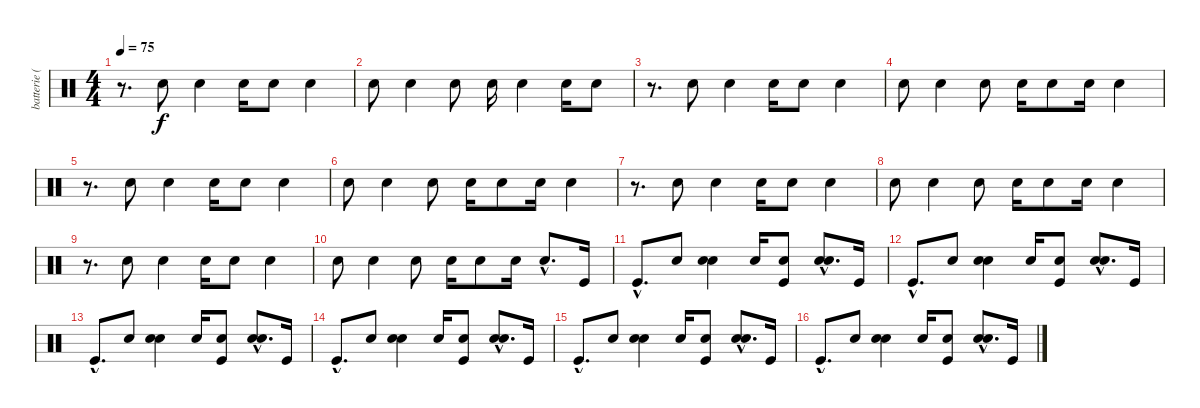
\track ("batterie ( fabien )" "batterie (") {instrument percussion}
\staff {score}
\articulation defaults
\ts (4 4)
\tempo 75
\clef neutral
\ks c
r.8{d dy f} "Hand Clap (hit)".8 "Hand Clap (hit)".4 "Hand Clap (hit)".16 "Hand Clap (hit)".8 "Hand Clap (hit)".4 |
"Hand Clap (hit)".8 "Hand Clap (hit)".4 "Hand Clap (hit)".8 "Hand Clap (hit)".16 "Hand Clap (hit)".4 "Hand Clap (hit)".16 "Hand Clap (hit)".8 |
r.8{d} "Hand Clap (hit)".8 "Hand Clap (hit)".4 "Hand Clap (hit)".16 "Hand Clap (hit)".8 "Hand Clap (hit)".4 |
"Hand Clap (hit)".8 "Hand Clap (hit)".4 "Hand Clap (hit)".8 "Hand Clap (hit)".16 "Hand Clap (hit)".8 "Hand Clap (hit)".16 "Hand Clap (hit)".4 |
r.8{d} "Hand Clap (hit)".8 "Hand Clap (hit)".4 "Hand Clap (hit)".16 "Hand Clap (hit)".8 "Hand Clap (hit)".4 |
"Hand Clap (hit)".8 "Hand Clap (hit)".4 "Hand Clap (hit)".8 "Hand Clap (hit)".16 "Hand Clap (hit)".8 "Hand Clap (hit)".16 "Hand Clap (hit)".4 |
r.8{d} "Hand Clap (hit)".8 "Hand Clap (hit)".4 "Hand Clap (hit)".16 "Hand Clap (hit)".8 "Hand Clap (hit)".4 |
"Hand Clap (hit)".8 "Hand Clap (hit)".4 "Hand Clap (hit)".8 "Hand Clap (hit)".16 "Hand Clap (hit)".8 "Hand Clap (hit)".16 "Hand Clap (hit)".4 |
r.8{d} "Hand Clap (hit)".8 "Hand Clap (hit)".4 "Hand Clap (hit)".16 "Hand Clap (hit)".8 "Hand Clap (hit)".4 |
"Hand Clap (hit)".8 "Hand Clap (hit)".4 "Hand Clap (hit)".8 "Hand Clap (hit)".16 "Hand Clap (hit)".8 "Hand Clap (hit)".16 "Hand Clap (hit)"{hac}.8{d} "Kick (hit)".16 |
"Kick (hit)"{hac}.8{d} "Hand Clap (hit)".8 ("Electric Snare (hit)" "Hand Clap (hit)").4 "Hand Clap (hit)".16 ("Hand Clap (hit)" "Kick (hit)").8 ("Electric Snare (hit)"{hac} "Hand Clap (hit)"{hac}).8{d} "Kick (hit)".16 |
"Kick (hit)"{hac}.8{d} "Hand Clap (hit)".8 ("Electric Snare (hit)" "Hand Clap (hit)").4 "Hand Clap (hit)".16 ("Hand Clap (hit)" "Kick (hit)").8 ("Electric Snare (hit)"{hac} "Hand Clap (hit)"{hac}).8{d} "Kick (hit)".16 |
"Kick (hit)"{hac}.8{d} "Hand Clap (hit)".8 ("Electric Snare (hit)" "Hand Clap (hit)").4 "Hand Clap (hit)".16 ("Hand Clap (hit)" "Kick (hit)").8 ("Electric Snare (hit)"{hac} "Hand Clap (hit)"{hac}).8{d} "Kick (hit)".16 |
"Kick (hit)"{hac}.8{d} "Hand Clap (hit)".8 ("Electric Snare (hit)" "Hand Clap (hit)").4 "Hand Clap (hit)".16 ("Hand Clap (hit)" "Kick (hit)").8 ("Electric Snare (hit)"{hac} "Hand Clap (hit)"{hac}).8{d} "Kick (hit)".16 |
"Kick (hit)"{hac}.8{d} "Hand Clap (hit)".8 ("Electric Snare (hit)" "Hand Clap (hit)").4 "Hand Clap (hit)".16 ("Hand Clap (hit)" "Kick (hit)").8 ("Electric Snare (hit)"{hac} "Hand Clap (hit)"{hac}).8{d} "Kick (hit)".16 |
"Kick (hit)"{hac}.8{d} "Hand Clap (hit)".8 ("Electric Snare (hit)" "Hand Clap (hit)").4 "Hand Clap (hit)".16 ("Hand Clap (hit)" "Kick (hit)").8 ("Electric Snare (hit)"{hac} "Hand Clap (hit)"{hac}).8{d} "Kick (hit)".16
